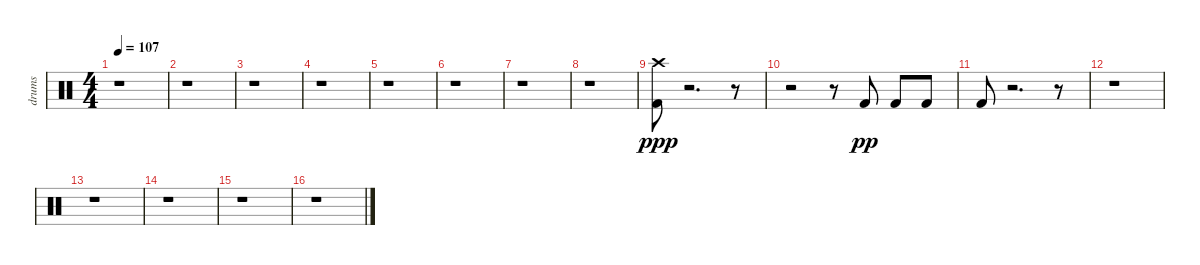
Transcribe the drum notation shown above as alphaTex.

\track ("drums" "drums") {instrument percussion}
\staff {score}
\articulation defaults
\ts (4 4)
\tempo 107
\clef neutral
\ks c
r.1{dy ppp} |
r.1 |
r.1 |
r.1 |
r.1 |
r.1 |
r.1 |
r.1 |
("Kick (hit) 2" "Crash high (hit)").8 r.2{d} r.8 |
r.2 r.8 "Kick (hit) 2".8{dy pp} "Kick (hit) 2".8 "Kick (hit) 2".8 |
"Kick (hit) 2".8 r.2{d} r.8 |
r.1 |
r.1 |
r.1 |
r.1 |
r.1
